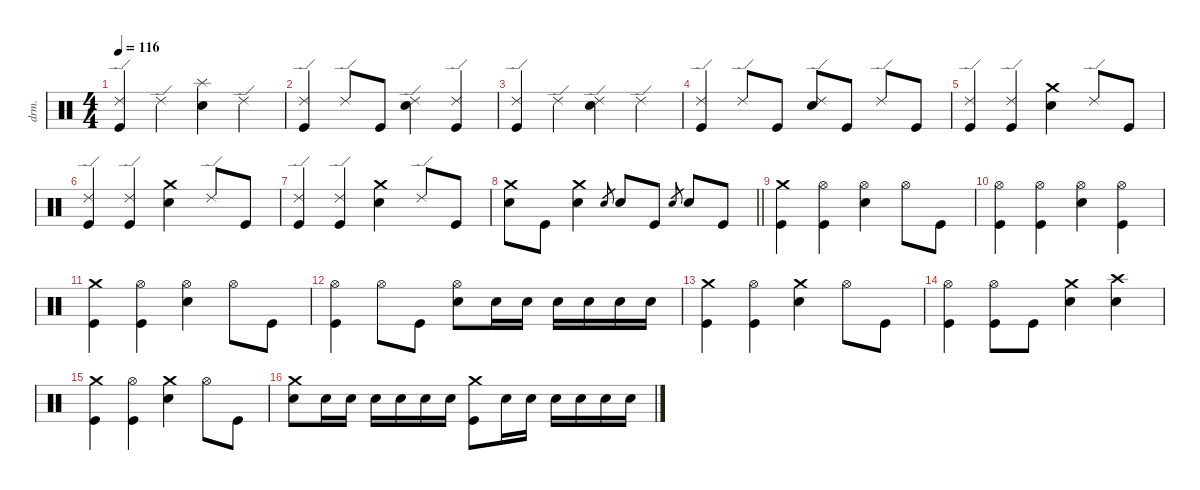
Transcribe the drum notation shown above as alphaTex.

\defaultSystemsLayout 4
\hideDynamics
\bracketExtendMode nobrackets
\otherSystemsTrackNameOrientation horizontal
\track ("Drum" "drm.") {instrument percussion}
\staff {score}
\articulation defaults
\ts (4 4)
\tempo 116
\clef neutral
\ks c
("Kick (hit)" "Ride (edge) 2").4{dy f beam Up} "Ride (edge) 2".4{beam Down} ("Snare (hit) 2" "Splash (hit)").4{beam Down} "Ride (edge) 2".4{beam Down} |
("Kick (hit)" "Ride (edge) 2").4{beam Up} "Ride (edge) 2".8{beam Up} "Kick (hit)".8{beam Up} ("Snare (hit) 2" "Ride (edge) 2").4{beam Down} ("Kick (hit)" "Ride (edge) 2").4{beam Up} |
("Kick (hit)" "Ride (edge) 2").4{beam Up} "Ride (edge) 2".4{beam Down} ("Snare (hit) 2" "Ride (edge) 2").4{beam Down} "Ride (edge) 2".4{beam Down} |
("Kick (hit)" "Ride (edge) 2").4{beam Up} "Ride (edge) 2".8{beam Up} "Kick (hit)".8{beam Up} ("Snare (hit) 2" "Ride (edge) 2").8{beam Up} "Kick (hit)".8{beam Up} "Ride (edge) 2".8{beam Up} "Kick (hit)".8{beam Up} |
("Kick (hit)" "Ride (edge) 2").4{beam Up} ("Kick (hit)" "Ride (edge) 2").4{beam Up} ("Snare (hit) 2" "Crash medium (hit)").4{beam Down} "Ride (edge) 2".8{beam Up} "Kick (hit)".8{beam Up} |
("Kick (hit)" "Ride (edge) 2").4{beam Up} ("Kick (hit)" "Ride (edge) 2").4{beam Up} ("Snare (hit) 2" "Crash medium (hit)").4{beam Down} "Ride (edge) 2".8{beam Up} "Kick (hit)".8{beam Up} |
("Kick (hit)" "Ride (edge) 2").4{beam Up} ("Kick (hit)" "Ride (edge) 2").4{beam Up} ("Snare (hit) 2" "Crash medium (hit)").4{beam Down} "Ride (edge) 2".8{beam Up} "Kick (hit)".8{beam Up} |
\barLineRight lightlight
("Snare (hit) 2" "Crash medium (hit)").8{beam Down} "Kick (hit)".8{beam Down} ("Snare (hit) 2" "Crash medium (hit)").4{beam Down} "Electric Snare (hit)".8{gr dy mf beam Up} "Snare (hit) 2".8{dy f beam Up} "Kick (hit)".8{beam Up} "Electric Snare (hit)".8{gr dy mf beam Up} "Snare (hit) 2".8{dy f beam Up} "Kick (hit)".8{beam Up} |
("Kick (hit)" "Crash medium (hit)").4{beam Down} ("Kick (hit)" "Hi-Hat (open)").4{beam Down} ("Snare (hit) 2" "Hi-Hat (open)").4{beam Down} "Hi-Hat (open)".8{beam Down} "Kick (hit)".8{beam Down} |
("Kick (hit)" "Hi-Hat (open)").4{beam Down} ("Kick (hit)" "Hi-Hat (open)").4{beam Down} ("Snare (hit) 2" "Hi-Hat (open)").4{beam Down} ("Kick (hit)" "Hi-Hat (open)").4{beam Down} |
("Kick (hit)" "Crash medium (hit)").4{beam Down} ("Kick (hit)" "Hi-Hat (open)").4{beam Down} ("Snare (hit) 2" "Hi-Hat (open)").4{beam Down} "Hi-Hat (open)".8{beam Down} "Kick (hit)".8{beam Down} |
("Kick (hit)" "Hi-Hat (open)").4{beam Down} "Hi-Hat (open)".8{beam Down} "Kick (hit)".8{beam Down} ("Snare (hit) 2" "Hi-Hat (open)").8{beam Down} "Snare (hit) 2".16{beam Down} "Snare (hit) 2".16{beam Down} "Snare (hit) 2".16{beam Down} "Snare (hit) 2".16{beam Down} "Snare (hit) 2".16{beam Down} "Snare (hit) 2".16{beam Down} |
("Kick (hit)" "Crash medium (hit)").4{beam Down} ("Kick (hit)" "Hi-Hat (open)").4{beam Down} ("Snare (hit) 2" "Crash medium (hit)").4{beam Down} "Hi-Hat (open)".8{beam Down} "Kick (hit)".8{beam Down} |
("Kick (hit)" "Hi-Hat (open)").4{beam Down} ("Kick (hit)" "Hi-Hat (open)").8{beam Down} "Kick (hit)".8{beam Down} ("Snare (hit) 2" "Crash medium (hit)").4{beam Down} ("Snare (hit) 2" "Crash high (hit)").4{beam Down} |
("Kick (hit)" "Crash medium (hit)").4{beam Down} ("Kick (hit)" "Hi-Hat (open)").4{beam Down} ("Snare (hit) 2" "Crash medium (hit)").4{beam Down} "Hi-Hat (open)".8{beam Down} "Kick (hit)".8{beam Down} |
("Snare (hit) 2" "Crash medium (hit)").8{beam Down} "Snare (hit) 2".16{beam Down} "Snare (hit) 2".16{beam Down} "Snare (hit) 2".16{beam Down} "Snare (hit) 2".16{beam Down} "Snare (hit) 2".16{beam Down} "Snare (hit) 2".16{beam Down} ("Kick (hit)" "Crash medium (hit)").8{beam Down} "Snare (hit) 2".16{beam Down} "Snare (hit) 2".16{beam Down} "Snare (hit) 2".16{beam Down} "Snare (hit) 2".16{beam Down} "Snare (hit) 2".16{beam Down} "Snare (hit) 2".16{beam Down}
